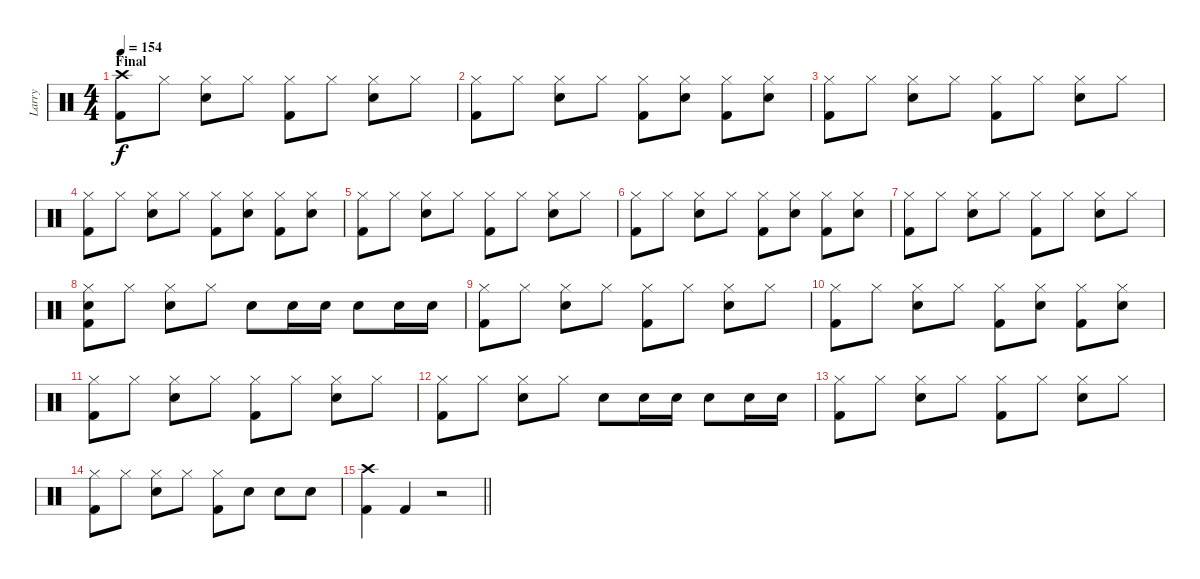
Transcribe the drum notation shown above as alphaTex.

\track ("Larry " "Larry ") {instrument percussion}
\staff {score}
\articulation defaults
\ts (4 4)
\section ("" "Final")
\tempo 154
\clef neutral
\ks c
("Crash high (hit)" "Kick (hit) 2").8{dy f} "Hi-Hat (closed)".8 ("Hi-Hat (closed)" "Snare (hit) 2").8 "Hi-Hat (closed)".8 ("Hi-Hat (closed)" "Kick (hit) 2").8 "Hi-Hat (closed)".8 ("Hi-Hat (closed)" "Snare (hit) 2").8 "Hi-Hat (closed)".8 |
("Hi-Hat (closed)" "Kick (hit) 2").8 "Hi-Hat (closed)".8 ("Hi-Hat (closed)" "Snare (hit) 2").8 "Hi-Hat (closed)".8 ("Hi-Hat (closed)" "Kick (hit) 2").8 ("Hi-Hat (closed)" "Snare (hit) 2").8 ("Hi-Hat (closed)" "Kick (hit) 2").8 ("Hi-Hat (closed)" "Snare (hit) 2").8 |
("Hi-Hat (closed)" "Kick (hit) 2").8 "Hi-Hat (closed)".8 ("Hi-Hat (closed)" "Snare (hit) 2").8 "Hi-Hat (closed)".8 ("Hi-Hat (closed)" "Kick (hit) 2").8 "Hi-Hat (closed)".8 ("Hi-Hat (closed)" "Snare (hit) 2").8 "Hi-Hat (closed)".8 |
("Hi-Hat (closed)" "Kick (hit) 2").8 "Hi-Hat (closed)".8 ("Hi-Hat (closed)" "Snare (hit) 2").8 "Hi-Hat (closed)".8 ("Hi-Hat (closed)" "Kick (hit) 2").8 ("Hi-Hat (closed)" "Snare (hit) 2").8 ("Hi-Hat (closed)" "Kick (hit) 2").8 ("Hi-Hat (closed)" "Snare (hit) 2").8 |
("Hi-Hat (closed)" "Kick (hit) 2").8 "Hi-Hat (closed)".8 ("Hi-Hat (closed)" "Snare (hit) 2").8 "Hi-Hat (closed)".8 ("Hi-Hat (closed)" "Kick (hit) 2").8 "Hi-Hat (closed)".8 ("Hi-Hat (closed)" "Snare (hit) 2").8 "Hi-Hat (closed)".8 |
("Hi-Hat (closed)" "Kick (hit) 2").8 "Hi-Hat (closed)".8 ("Hi-Hat (closed)" "Snare (hit) 2").8 "Hi-Hat (closed)".8 ("Hi-Hat (closed)" "Kick (hit) 2").8 ("Hi-Hat (closed)" "Snare (hit) 2").8 ("Hi-Hat (closed)" "Kick (hit) 2").8 ("Hi-Hat (closed)" "Snare (hit) 2").8 |
("Hi-Hat (closed)" "Kick (hit) 2").8 "Hi-Hat (closed)".8 ("Hi-Hat (closed)" "Snare (hit) 2").8 "Hi-Hat (closed)".8 ("Hi-Hat (closed)" "Kick (hit) 2").8 "Hi-Hat (closed)".8 ("Hi-Hat (closed)" "Snare (hit) 2").8 "Hi-Hat (closed)".8 |
("Hi-Hat (closed)" "Snare (hit) 2" "Kick (hit) 2").8 "Hi-Hat (closed)".8 ("Hi-Hat (closed)" "Snare (hit) 2").8 "Hi-Hat (closed)".8 "Snare (hit) 2".8 "Snare (hit) 2".16 "Snare (hit) 2".16 "Snare (hit) 2".8 "Snare (hit) 2".16 "Snare (hit) 2".16 |
("Hi-Hat (closed)" "Kick (hit) 2").8 "Hi-Hat (closed)".8 ("Hi-Hat (closed)" "Snare (hit) 2").8 "Hi-Hat (closed)".8 ("Hi-Hat (closed)" "Kick (hit) 2").8 "Hi-Hat (closed)".8 ("Hi-Hat (closed)" "Snare (hit) 2").8 "Hi-Hat (closed)".8 |
("Hi-Hat (closed)" "Kick (hit) 2").8 "Hi-Hat (closed)".8 ("Hi-Hat (closed)" "Snare (hit) 2").8 "Hi-Hat (closed)".8 ("Hi-Hat (closed)" "Kick (hit) 2").8 ("Hi-Hat (closed)" "Snare (hit) 2").8 ("Hi-Hat (closed)" "Kick (hit) 2").8 ("Hi-Hat (closed)" "Snare (hit) 2").8 |
("Hi-Hat (closed)" "Kick (hit) 2").8 "Hi-Hat (closed)".8 ("Hi-Hat (closed)" "Snare (hit) 2").8 "Hi-Hat (closed)".8 ("Hi-Hat (closed)" "Kick (hit) 2").8 "Hi-Hat (closed)".8 ("Hi-Hat (closed)" "Snare (hit) 2").8 "Hi-Hat (closed)".8 |
("Hi-Hat (closed)" "Kick (hit) 2").8 "Hi-Hat (closed)".8 ("Hi-Hat (closed)" "Snare (hit) 2").8 "Hi-Hat (closed)".8 "Snare (hit) 2".8 "Snare (hit) 2".16 "Snare (hit) 2".16 "Snare (hit) 2".8 "Snare (hit) 2".16 "Snare (hit) 2".16 |
("Hi-Hat (closed)" "Kick (hit) 2").8 "Hi-Hat (closed)".8 ("Hi-Hat (closed)" "Snare (hit) 2").8 "Hi-Hat (closed)".8 ("Hi-Hat (closed)" "Kick (hit) 2").8 "Hi-Hat (closed)".8 ("Hi-Hat (closed)" "Snare (hit) 2").8 "Hi-Hat (closed)".8 |
("Hi-Hat (closed)" "Kick (hit) 2").8 "Hi-Hat (closed)".8 ("Hi-Hat (closed)" "Snare (hit) 2").8 "Hi-Hat (closed)".8 ("Hi-Hat (closed)" "Kick (hit) 2").8 "Snare (hit) 2".8 "Snare (hit) 2".8 "Snare (hit) 2".8 |
\barLineRight lightlight
("Crash high (hit)" "Kick (hit) 2").4 "Kick (hit) 2".4 r.2
